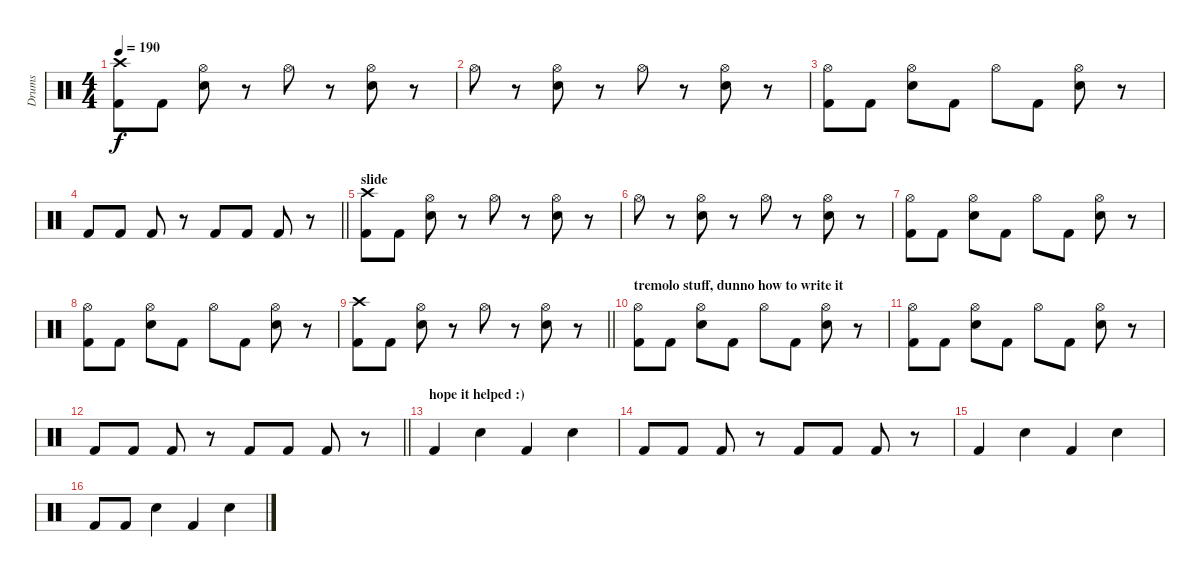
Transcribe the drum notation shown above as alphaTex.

\track ("Drums" "Drums") {instrument percussion}
\staff {score}
\articulation defaults
\ts (4 4)
\tempo 190
\clef neutral
\ks c
("Crash high (hit)" "Kick (hit) 2").8{dy f} "Kick (hit) 2".8 ("Hi-Hat (open)" "Electric Snare (hit)").8 r.8 "Hi-Hat (open)".8 r.8 ("Hi-Hat (open)" "Electric Snare (hit)").8 r.8 |
"Hi-Hat (open)".8 r.8 ("Hi-Hat (open)" "Electric Snare (hit)").8 r.8 "Hi-Hat (open)".8 r.8 ("Hi-Hat (open)" "Electric Snare (hit)").8 r.8 |
("Hi-Hat (open)" "Kick (hit) 2").8 "Kick (hit) 2".8 ("Hi-Hat (open)" "Electric Snare (hit)").8 "Kick (hit) 2".8 "Hi-Hat (open)".8 "Kick (hit) 2".8 ("Hi-Hat (open)" "Electric Snare (hit)").8 r.8 |
\barLineRight lightlight "Kick (hit) 2".8 "Kick (hit) 2".8 "Kick (hit) 2".8
r.8 "Kick (hit) 2".8 "Kick (hit) 2".8 "Kick (hit) 2".8 r.8 |
\section ("" "slide")
("Crash high (hit)" "Kick (hit) 2").8 "Kick (hit) 2".8 ("Hi-Hat (open)" "Electric Snare (hit)").8 r.8 "Hi-Hat (open)".8 r.8 ("Hi-Hat (open)" "Electric Snare (hit)").8 r.8 |
"Hi-Hat (open)".8 r.8 ("Hi-Hat (open)" "Electric Snare (hit)").8 r.8 "Hi-Hat (open)".8 r.8 ("Hi-Hat (open)" "Electric Snare (hit)").8 r.8 |
("Hi-Hat (open)" "Kick (hit) 2").8 "Kick (hit) 2".8 ("Hi-Hat (open)" "Electric Snare (hit)").8 "Kick (hit) 2".8 "Hi-Hat (open)".8 "Kick (hit) 2".8 ("Hi-Hat (open)" "Electric Snare (hit)").8 r.8 |
("Hi-Hat (open)" "Kick (hit) 2").8 "Kick (hit) 2".8 ("Hi-Hat (open)" "Electric Snare (hit)").8 "Kick (hit) 2".8 "Hi-Hat (open)".8 "Kick (hit) 2".8 ("Hi-Hat (open)" "Electric Snare (hit)").8 r.8 |
\barLineRight lightlight
("Crash high (hit)" "Kick (hit) 2").8 "Kick (hit) 2".8 ("Hi-Hat (open)" "Electric Snare (hit)").8 r.8 "Hi-Hat (open)".8 r.8 ("Hi-Hat (open)" "Electric Snare (hit)").8 r.8 |
\section ("" "tremolo stuff, dunno how to write it")
("Hi-Hat (open)" "Kick (hit) 2").8 "Kick (hit) 2".8 ("Hi-Hat (open)" "Electric Snare (hit)").8 "Kick (hit) 2".8 "Hi-Hat (open)".8 "Kick (hit) 2".8 ("Hi-Hat (open)" "Electric Snare (hit)").8 r.8 |
("Hi-Hat (open)" "Kick (hit) 2").8 "Kick (hit) 2".8 ("Hi-Hat (open)" "Electric Snare (hit)").8 "Kick (hit) 2".8 "Hi-Hat (open)".8 "Kick (hit) 2".8 ("Hi-Hat (open)" "Electric Snare (hit)").8 r.8 |
\barLineRight lightlight "Kick (hit) 2".8 "Kick (hit) 2".8 "Kick (hit) 2".8
r.8 "Kick (hit) 2".8 "Kick (hit) 2".8 "Kick (hit) 2".8 r.8 |
\section ("" "hope it helped :)")
"Kick (hit) 2".4 "Electric Snare (hit)".4 "Kick (hit) 2".4 "Electric Snare (hit)".4 |
"Kick (hit) 2".8 "Kick (hit) 2".8 "Kick (hit) 2".8 r.8 "Kick (hit) 2".8 "Kick (hit) 2".8 "Kick (hit) 2".8 r.8 |
"Kick (hit) 2".4 "Electric Snare (hit)".4 "Kick (hit) 2".4 "Electric Snare (hit)".4 |
"Kick (hit) 2".8 "Kick (hit) 2".8 "Electric Snare (hit)".4 "Kick (hit) 2".4 "Electric Snare (hit)".4
